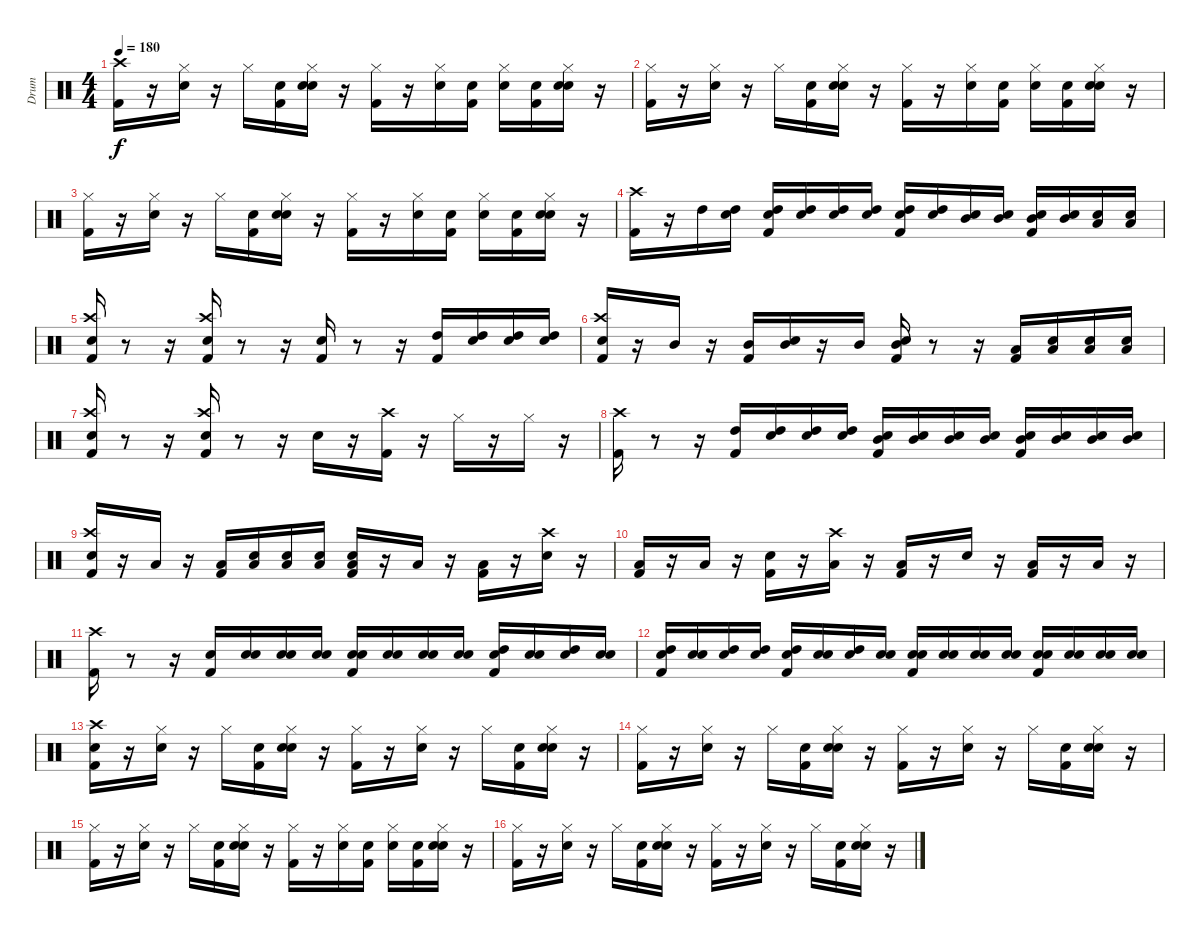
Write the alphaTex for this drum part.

\track ("Drum" "Drum") {instrument percussion}
\staff {score}
\articulation defaults
\ts (4 4)
\tempo 180
\clef neutral
\ks c
("Kick (hit) 2" "Crash high (hit)").16{dy f} r.16 ("Snare (hit) 2" "Hi-Hat (closed)").16 r.16 "Hi-Hat (closed)".16 ("Snare (hit)" "Kick (hit) 2").16 ("Snare (hit)" "Snare (hit) 2" "Hi-Hat (closed)").16 r.16 ("Kick (hit) 2" "Hi-Hat (closed)").16 r.16 ("Snare (hit) 2" "Hi-Hat (closed)").16 ("Snare (hit)" "Kick (hit) 2").16 ("Snare (hit)" "Hi-Hat (closed)").16 ("Snare (hit)" "Kick (hit) 2").16 ("Snare (hit)" "Snare (hit) 2" "Hi-Hat (closed)").16 r.16 |
("Kick (hit) 2" "Hi-Hat (closed)").16 r.16 ("Snare (hit) 2" "Hi-Hat (closed)").16 r.16 "Hi-Hat (closed)".16 ("Snare (hit)" "Kick (hit) 2").16 ("Snare (hit)" "Snare (hit) 2" "Hi-Hat (closed)").16 r.16 ("Kick (hit) 2" "Hi-Hat (closed)").16 r.16 ("Snare (hit) 2" "Hi-Hat (closed)").16 ("Snare (hit)" "Kick (hit) 2").16 ("Snare (hit)" "Hi-Hat (closed)").16 ("Snare (hit)" "Kick (hit) 2").16 ("Snare (hit)" "Snare (hit) 2" "Hi-Hat (closed)").16 r.16 |
("Kick (hit) 2" "Hi-Hat (closed)").16 r.16 ("Snare (hit) 2" "Hi-Hat (closed)").16 r.16 "Hi-Hat (closed)".16 ("Snare (hit)" "Kick (hit) 2").16 ("Snare (hit)" "Snare (hit) 2" "Hi-Hat (closed)").16 r.16 ("Kick (hit) 2" "Hi-Hat (closed)").16 r.16 ("Snare (hit) 2" "Hi-Hat (closed)").16 ("Snare (hit)" "Kick (hit) 2").16 ("Snare (hit)" "Hi-Hat (closed)").16 ("Snare (hit)" "Kick (hit) 2").16 ("Snare (hit)" "Snare (hit) 2" "Hi-Hat (closed)").16 r.16 |
("Kick (hit) 2" "Crash high (hit)").16 r.16 "High Tom (hit)".16 ("Snare (hit)" "High Tom (hit)").16 ("Snare (hit)" "High Tom (hit)" "Kick (hit) 2").16 ("Snare (hit)" "High Tom (hit)").16 ("Snare (hit)" "High Tom (hit)").16 ("Snare (hit)" "High Tom (hit)").16 ("Snare (hit)" "High Tom (hit)" "Kick (hit) 2").16 ("Snare (hit)" "High Tom (hit)").16 ("Snare (hit)" "Mid Tom (hit)").16 ("Snare (hit)" "Mid Tom (hit)").16 ("Snare (hit)" "Mid Tom (hit)" "Kick (hit) 2").16 ("Snare (hit)" "Mid Tom (hit)").16 ("Snare (hit)" "Low Tom (hit)").16 ("Snare (hit)" "Low Tom (hit)").16 |
("Snare (hit)" "Crash high (hit)" "Kick (hit) 2").16 r.8 r.16 ("Snare (hit) 2" "Kick (hit) 2" "Crash high (hit)").16 r.8 r.16 ("Snare (hit) 2" "Kick (hit) 2").16 r.8 r.16 ("High Tom (hit)" "Kick (hit) 2").16 ("Snare (hit)" "High Tom (hit)").16 ("Snare (hit)" "High Tom (hit)").16 ("Snare (hit)" "High Tom (hit)").16 |
("Snare (hit)" "Kick (hit) 2" "Crash high (hit)").16 r.16 "Mid Tom (hit)".16 r.16 ("Mid Tom (hit)" "Kick (hit) 2").16 ("Snare (hit)" "Mid Tom (hit)").16 r.16 "Mid Tom (hit)".16 ("Snare (hit)" "Mid Tom (hit)" "Kick (hit) 2").16 r.8 r.16 ("Low Tom (hit)" "Kick (hit) 2").16 ("Snare (hit)" "Low Tom (hit)").16 ("Snare (hit)" "Low Tom (hit)").16 ("Snare (hit)" "Low Tom (hit)").16 |
("Snare (hit)" "Crash high (hit)" "Kick (hit) 2").16 r.8 r.16 ("Kick (hit) 2" "Snare (hit) 2" "Crash high (hit)").16 r.8 r.16 "Snare (hit) 2".16 r.16 ("Kick (hit) 2" "Crash high (hit)").16 r.16 "Hi-Hat (closed)".16 r.16 "Hi-Hat (closed)".16 r.16 |
("Kick (hit) 2" "Crash high (hit)").16 r.8 r.16 ("High Tom (hit)" "Kick (hit) 2").16 ("Snare (hit)" "High Tom (hit)").16 ("Snare (hit)" "High Tom (hit)").16 ("Snare (hit)" "High Tom (hit)").16 ("Snare (hit)" "Mid Tom (hit)" "Kick (hit) 2").16 ("Snare (hit)" "Mid Tom (hit)").16 ("Snare (hit)" "Mid Tom (hit)").16 ("Snare (hit)" "Mid Tom (hit)").16 ("Snare (hit)" "Mid Tom (hit)" "Kick (hit) 2").16 ("Snare (hit)" "Mid Tom (hit)").16 ("Snare (hit)" "Mid Tom (hit)").16 ("Snare (hit)" "Mid Tom (hit)").16 |
("Snare (hit)" "Kick (hit) 2" "Crash high (hit)").16 r.16 "Low Tom (hit)".16 r.16 ("Low Tom (hit)" "Kick (hit) 2").16 ("Snare (hit)" "Low Tom (hit)").16 ("Snare (hit)" "Low Tom (hit)").16 ("Snare (hit)" "Low Tom (hit)").16 ("Snare (hit)" "Low Tom (hit)" "Kick (hit) 2").16 r.16 "Low Tom (hit)".16 r.16 ("Low Tom (hit)" "Kick (hit) 2").16 r.16 ("Crash high (hit)" "Snare (hit) 2").16 r.16 |
("Low Tom (hit)" "Kick (hit) 2").16 r.16 "Low Tom (hit)".16 r.16 ("Snare (hit) 2" "Kick (hit) 2").16 r.16 ("Crash high (hit)" "Low Tom (hit)").16 r.16 ("Low Tom (hit)" "Kick (hit) 2").16 r.16 "Snare (hit) 2".16 r.16 ("Low Tom (hit)" "Kick (hit) 2").16 r.16 "Low Tom (hit)".16 r.16 |
("Crash high (hit)" "Kick (hit) 2").16 r.8 r.16 ("Snare (hit) 2" "Kick (hit) 2").16 ("Snare (hit)" "Snare (hit) 2").16 ("Snare (hit)" "Snare (hit) 2").16 ("Snare (hit)" "Snare (hit) 2").16 ("Snare (hit)" "Snare (hit) 2" "Kick (hit) 2").16 ("Snare (hit)" "Snare (hit) 2").16 ("Snare (hit)" "Snare (hit) 2").16 ("Snare (hit)" "Snare (hit) 2").16 ("Snare (hit)" "High Tom (hit)" "Kick (hit) 2").16 ("Snare (hit)" "Snare (hit) 2").16 ("Snare (hit)" "High Tom (hit)").16 ("Snare (hit)" "Snare (hit) 2").16 |
("Snare (hit)" "High Tom (hit)" "Kick (hit) 2").16 ("Snare (hit)" "Snare (hit) 2").16 ("Snare (hit)" "High Tom (hit)").16 ("Snare (hit)" "High Tom (hit)").16 ("Snare (hit)" "High Tom (hit)" "Kick (hit) 2").16 ("Snare (hit)" "Snare (hit) 2").16 ("Snare (hit)" "High Tom (hit)").16 ("Snare (hit)" "Snare (hit) 2").16 ("Snare (hit)" "Snare (hit) 2" "Kick (hit) 2").16 ("Snare (hit)" "Snare (hit) 2").16 ("Snare (hit)" "Snare (hit) 2").16 ("Snare (hit)" "Snare (hit) 2").16 ("Snare (hit)" "Snare (hit) 2" "Kick (hit) 2").16 ("Snare (hit)" "Snare (hit) 2").16 ("Snare (hit)" "Snare (hit) 2").16 ("Snare (hit)" "Snare (hit) 2").16 |
("Snare (hit)" "Kick (hit) 2" "Crash high (hit)").16 r.16 ("Snare (hit) 2" "Hi-Hat (closed)").16 r.16 "Hi-Hat (closed)".16 ("Snare (hit)" "Kick (hit) 2").16 ("Snare (hit)" "Snare (hit) 2" "Hi-Hat (closed)").16 r.16 ("Kick (hit) 2" "Hi-Hat (closed)").16 r.16 ("Snare (hit) 2" "Hi-Hat (closed)").16 r.16 "Hi-Hat (closed)".16 ("Snare (hit)" "Kick (hit) 2").16 ("Snare (hit)" "Snare (hit) 2" "Hi-Hat (closed)").16 r.16 |
("Kick (hit) 2" "Hi-Hat (closed)").16 r.16 ("Snare (hit) 2" "Hi-Hat (closed)").16 r.16 "Hi-Hat (closed)".16 ("Snare (hit)" "Kick (hit) 2").16 ("Snare (hit)" "Snare (hit) 2" "Hi-Hat (closed)").16 r.16 ("Kick (hit) 2" "Hi-Hat (closed)").16 r.16 ("Snare (hit) 2" "Hi-Hat (closed)").16 r.16 "Hi-Hat (closed)".16 ("Snare (hit)" "Kick (hit) 2").16 ("Snare (hit)" "Snare (hit) 2" "Hi-Hat (closed)").16 r.16 |
("Kick (hit) 2" "Hi-Hat (closed)").16 r.16 ("Hi-Hat (closed)" "Snare (hit) 2").16 r.16 "Hi-Hat (closed)".16 ("Snare (hit)" "Kick (hit) 2").16 ("Snare (hit)" "Snare (hit) 2" "Hi-Hat (closed)").16 r.16 ("Kick (hit) 2" "Hi-Hat (closed)").16 r.16 ("Snare (hit) 2" "Hi-Hat (closed)").16 ("Snare (hit)" "Kick (hit) 2").16 ("Snare (hit)" "Hi-Hat (closed)").16 ("Snare (hit)" "Kick (hit) 2").16 ("Snare (hit)" "Snare (hit) 2" "Hi-Hat (closed)").16 r.16 |
("Kick (hit) 2" "Hi-Hat (closed)").16 r.16 ("Snare (hit) 2" "Hi-Hat (closed)").16 r.16 "Hi-Hat (closed)".16 ("Snare (hit)" "Kick (hit) 2").16 ("Snare (hit)" "Snare (hit) 2" "Hi-Hat (closed)").16 r.16 ("Kick (hit) 2" "Hi-Hat (closed)").16 r.16 ("Snare (hit) 2" "Hi-Hat (closed)").16 r.16 "Hi-Hat (closed)".16 ("Snare (hit)" "Kick (hit) 2").16 ("Snare (hit)" "Snare (hit) 2" "Hi-Hat (closed)").16 r.16
